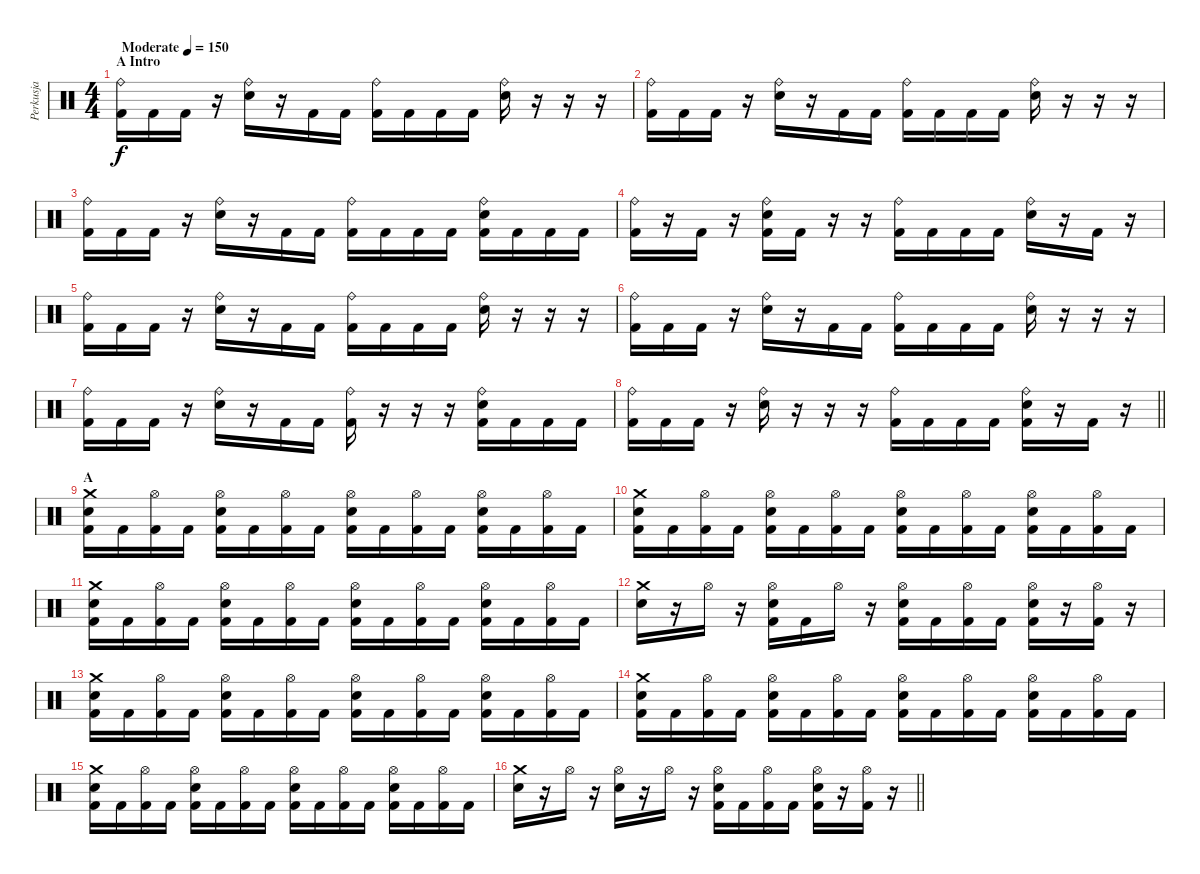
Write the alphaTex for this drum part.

\track ("Perkusja" "Perkusja") {instrument percussion}
\staff {score}
\articulation defaults
\ts (4 4)
\section ("" "A Intro")
\tempo (150 "Moderate")
\clef neutral
\ks c
("Ride (bell)" "Kick (hit) 2").16{dy f} "Kick (hit) 2".16 "Kick (hit) 2".16 r.16 ("Ride (bell)" "Snare (hit) 2").16 r.16 "Kick (hit) 2".16 "Kick (hit) 2".16 ("Ride (bell)" "Kick (hit) 2").16 "Kick (hit) 2".16 "Kick (hit) 2".16 "Kick (hit) 2".16 ("Ride (bell)" "Snare (hit) 2").16 r.16 r.16 r.16 |
("Ride (bell)" "Kick (hit) 2").16 "Kick (hit) 2".16 "Kick (hit) 2".16 r.16 ("Ride (bell)" "Snare (hit) 2").16 r.16 "Kick (hit) 2".16 "Kick (hit) 2".16 ("Ride (bell)" "Kick (hit) 2").16 "Kick (hit) 2".16 "Kick (hit) 2".16 "Kick (hit) 2".16 ("Ride (bell)" "Snare (hit) 2").16 r.16 r.16 r.16 |
("Ride (bell)" "Kick (hit) 2").16 "Kick (hit) 2".16 "Kick (hit) 2".16 r.16 ("Ride (bell)" "Snare (hit) 2").16 r.16 "Kick (hit) 2".16 "Kick (hit) 2".16 ("Ride (bell)" "Kick (hit) 2").16 "Kick (hit) 2".16 "Kick (hit) 2".16 "Kick (hit) 2".16 ("Ride (bell)" "Snare (hit) 2" "Kick (hit) 2").16 "Kick (hit) 2".16 "Kick (hit) 2".16 "Kick (hit) 2".16 |
("Ride (bell)" "Kick (hit) 2").16 r.16 "Kick (hit) 2".16 r.16 ("Ride (bell)" "Snare (hit) 2" "Kick (hit) 2").16 "Kick (hit) 2".16 r.16 r.16 ("Ride (bell)" "Kick (hit) 2").16 "Kick (hit) 2".16 "Kick (hit) 2".16 "Kick (hit) 2".16 ("Ride (bell)" "Snare (hit) 2").16 r.16 "Kick (hit) 2".16 r.16 |
("Ride (bell)" "Kick (hit) 2").16 "Kick (hit) 2".16 "Kick (hit) 2".16 r.16 ("Ride (bell)" "Snare (hit) 2").16 r.16 "Kick (hit) 2".16 "Kick (hit) 2".16 ("Ride (bell)" "Kick (hit) 2").16 "Kick (hit) 2".16 "Kick (hit) 2".16 "Kick (hit) 2".16 ("Ride (bell)" "Snare (hit) 2").16 r.16 r.16 r.16 |
("Ride (bell)" "Kick (hit) 2").16 "Kick (hit) 2".16 "Kick (hit) 2".16 r.16 ("Ride (bell)" "Snare (hit) 2").16 r.16 "Kick (hit) 2".16 "Kick (hit) 2".16 ("Ride (bell)" "Kick (hit) 2").16 "Kick (hit) 2".16 "Kick (hit) 2".16 "Kick (hit) 2".16 ("Ride (bell)" "Snare (hit) 2").16 r.16 r.16 r.16 |
("Ride (bell)" "Kick (hit) 2").16 "Kick (hit) 2".16 "Kick (hit) 2".16 r.16 ("Ride (bell)" "Snare (hit) 2").16 r.16 "Kick (hit) 2".16 "Kick (hit) 2".16 ("Ride (bell)" "Kick (hit) 2").16 r.16 r.16 r.16 ("Ride (bell)" "Snare (hit) 2" "Kick (hit) 2").16 "Kick (hit) 2".16 "Kick (hit) 2".16 "Kick (hit) 2".16 |
\barLineRight lightlight
("Ride (bell)" "Kick (hit) 2").16 "Kick (hit) 2".16 "Kick (hit) 2".16 r.16 ("Ride (bell)" "Snare (hit) 2").16 r.16 r.16 r.16 ("Ride (bell)" "Kick (hit) 2").16 "Kick (hit) 2".16 "Kick (hit) 2".16 "Kick (hit) 2".16 ("Ride (bell)" "Snare (hit) 2" "Kick (hit) 2").16 r.16 "Kick (hit) 2".16 r.16 |
\section ("" "A")
("Crash medium (hit)" "Snare (hit) 2" "Kick (hit) 2").16 "Kick (hit) 2".16 ("Hi-Hat (open)" "Kick (hit) 2").16 "Kick (hit) 2".16 ("Hi-Hat (open)" "Snare (hit) 2" "Kick (hit) 2").16 "Kick (hit) 2".16 ("Hi-Hat (open)" "Kick (hit) 2").16 "Kick (hit) 2".16 ("Hi-Hat (open)" "Snare (hit) 2" "Kick (hit) 2").16 "Kick (hit) 2".16 ("Hi-Hat (open)" "Kick (hit) 2").16 "Kick (hit) 2".16 ("Hi-Hat (open)" "Snare (hit) 2" "Kick (hit) 2").16 "Kick (hit) 2".16 ("Hi-Hat (open)" "Kick (hit) 2").16 "Kick (hit) 2".16 |
("Crash medium (hit)" "Snare (hit) 2" "Kick (hit) 2").16 "Kick (hit) 2".16 ("Hi-Hat (open)" "Kick (hit) 2").16 "Kick (hit) 2".16 ("Hi-Hat (open)" "Snare (hit) 2" "Kick (hit) 2").16 "Kick (hit) 2".16 ("Hi-Hat (open)" "Kick (hit) 2").16 "Kick (hit) 2".16 ("Hi-Hat (open)" "Snare (hit) 2" "Kick (hit) 2").16 "Kick (hit) 2".16 ("Hi-Hat (open)" "Kick (hit) 2").16 "Kick (hit) 2".16 ("Hi-Hat (open)" "Snare (hit) 2" "Kick (hit) 2").16 "Kick (hit) 2".16 ("Hi-Hat (open)" "Kick (hit) 2").16 "Kick (hit) 2".16 |
("Crash medium (hit)" "Snare (hit) 2" "Kick (hit) 2").16 "Kick (hit) 2".16 ("Hi-Hat (open)" "Kick (hit) 2").16 "Kick (hit) 2".16 ("Hi-Hat (open)" "Snare (hit) 2" "Kick (hit) 2").16 "Kick (hit) 2".16 ("Hi-Hat (open)" "Kick (hit) 2").16 "Kick (hit) 2".16 ("Hi-Hat (open)" "Snare (hit) 2" "Kick (hit) 2").16 "Kick (hit) 2".16 ("Hi-Hat (open)" "Kick (hit) 2").16 "Kick (hit) 2".16 ("Hi-Hat (open)" "Snare (hit) 2" "Kick (hit) 2").16 "Kick (hit) 2".16 ("Hi-Hat (open)" "Kick (hit) 2").16 "Kick (hit) 2".16 |
("Crash medium (hit)" "Snare (hit) 2").16 r.16 "Hi-Hat (open)".16 r.16 ("Hi-Hat (open)" "Snare (hit) 2" "Kick (hit) 2").16 "Kick (hit) 2".16 "Hi-Hat (open)".16 r.16 ("Hi-Hat (open)" "Snare (hit) 2" "Kick (hit) 2").16 "Kick (hit) 2".16 ("Hi-Hat (open)" "Kick (hit) 2").16 "Kick (hit) 2".16 ("Hi-Hat (open)" "Snare (hit) 2" "Kick (hit) 2").16 r.16 ("Hi-Hat (open)" "Kick (hit) 2").16 r.16 |
("Crash medium (hit)" "Snare (hit) 2" "Kick (hit) 2").16 "Kick (hit) 2".16 ("Hi-Hat (open)" "Kick (hit) 2").16 "Kick (hit) 2".16 ("Hi-Hat (open)" "Snare (hit) 2" "Kick (hit) 2").16 "Kick (hit) 2".16 ("Hi-Hat (open)" "Kick (hit) 2").16 "Kick (hit) 2".16 ("Hi-Hat (open)" "Snare (hit) 2" "Kick (hit) 2").16 "Kick (hit) 2".16 ("Hi-Hat (open)" "Kick (hit) 2").16 "Kick (hit) 2".16 ("Hi-Hat (open)" "Snare (hit) 2" "Kick (hit) 2").16 "Kick (hit) 2".16 ("Hi-Hat (open)" "Kick (hit) 2").16 "Kick (hit) 2".16 |
("Crash medium (hit)" "Snare (hit) 2" "Kick (hit) 2").16 "Kick (hit) 2".16 ("Hi-Hat (open)" "Kick (hit) 2").16 "Kick (hit) 2".16 ("Hi-Hat (open)" "Snare (hit) 2" "Kick (hit) 2").16 "Kick (hit) 2".16 ("Hi-Hat (open)" "Kick (hit) 2").16 "Kick (hit) 2".16 ("Hi-Hat (open)" "Snare (hit) 2" "Kick (hit) 2").16 "Kick (hit) 2".16 ("Hi-Hat (open)" "Kick (hit) 2").16 "Kick (hit) 2".16 ("Hi-Hat (open)" "Snare (hit) 2" "Kick (hit) 2").16 "Kick (hit) 2".16 ("Hi-Hat (open)" "Kick (hit) 2").16 "Kick (hit) 2".16 |
("Crash medium (hit)" "Snare (hit) 2" "Kick (hit) 2").16 "Kick (hit) 2".16 ("Hi-Hat (open)" "Kick (hit) 2").16 "Kick (hit) 2".16 ("Hi-Hat (open)" "Snare (hit) 2" "Kick (hit) 2").16 "Kick (hit) 2".16 ("Hi-Hat (open)" "Kick (hit) 2").16 "Kick (hit) 2".16 ("Hi-Hat (open)" "Snare (hit) 2" "Kick (hit) 2").16 "Kick (hit) 2".16 ("Hi-Hat (open)" "Kick (hit) 2").16 "Kick (hit) 2".16 ("Hi-Hat (open)" "Snare (hit) 2" "Kick (hit) 2").16 "Kick (hit) 2".16 ("Hi-Hat (open)" "Kick (hit) 2").16 "Kick (hit) 2".16 |
\barLineRight lightlight
("Crash medium (hit)" "Snare (hit) 2").16 r.16 "Hi-Hat (open)".16 r.16 ("Hi-Hat (open)" "Snare (hit) 2").16 r.16 "Hi-Hat (open)".16 r.16 ("Hi-Hat (open)" "Snare (hit) 2" "Kick (hit) 2").16 "Kick (hit) 2".16 ("Hi-Hat (open)" "Kick (hit) 2").16 "Kick (hit) 2".16 ("Hi-Hat (open)" "Snare (hit) 2" "Kick (hit) 2").16 r.16 ("Hi-Hat (open)" "Kick (hit) 2").16 r.16
